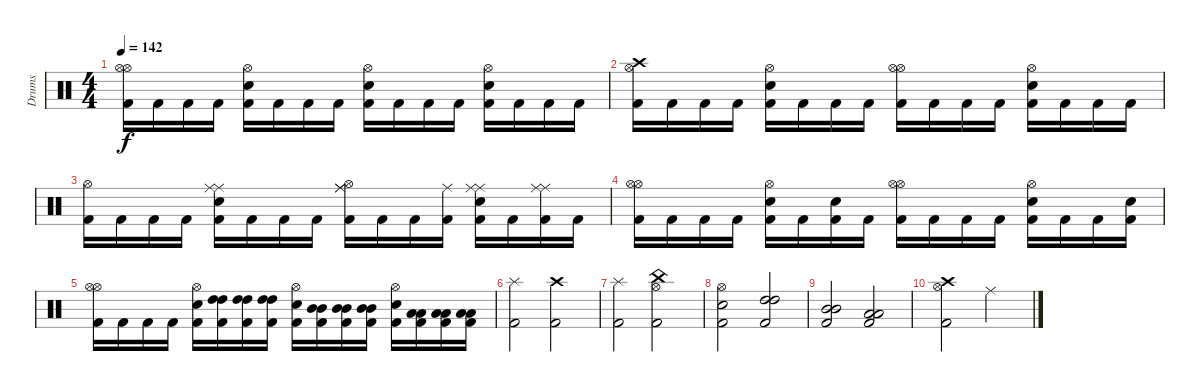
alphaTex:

\track ("Drums" "Drums") {instrument percussion}
\staff {score}
\articulation defaults
\ts (4 4)
\tempo 142
\clef neutral
\ks c
("Hi-Hat (open)" "Hi-Hat (open)" "Kick (hit) 2").16{dy f} "Kick (hit) 2".16 "Kick (hit) 2".16 "Kick (hit) 2".16 ("Hi-Hat (open)" "Electric Snare (hit)" "Kick (hit) 2").16 "Kick (hit) 2".16 "Kick (hit) 2".16 "Kick (hit) 2".16 ("Hi-Hat (open)" "Electric Snare (hit)" "Kick (hit) 2").16 "Kick (hit) 2".16 "Kick (hit) 2".16 "Kick (hit) 2".16 ("Hi-Hat (open)" "Electric Snare (hit)" "Kick (hit) 2").16 "Kick (hit) 2".16 "Kick (hit) 2".16 "Kick (hit) 2".16 |
("Crash high (hit)" "Hi-Hat (open)" "Kick (hit) 2").16 "Kick (hit) 2".16 "Kick (hit) 2".16 "Kick (hit) 2".16 ("Hi-Hat (open)" "Electric Snare (hit)" "Kick (hit) 2").16 "Kick (hit) 2".16 "Kick (hit) 2".16 "Kick (hit) 2".16 ("Hi-Hat (open)" "Hi-Hat (open)" "Kick (hit) 2").16 "Kick (hit) 2".16 "Kick (hit) 2".16 "Kick (hit) 2".16 ("Hi-Hat (open)" "Electric Snare (hit)" "Kick (hit) 2").16 "Kick (hit) 2".16 "Kick (hit) 2".16 "Kick (hit) 2".16 |
("Hi-Hat (open)" "Kick (hit) 2").16 "Kick (hit) 2".16 "Kick (hit) 2".16 "Kick (hit) 2".16 ("Ride (middle)" "Ride (middle)" "Electric Snare (hit)" "Kick (hit) 2").16 "Kick (hit) 2".16 "Kick (hit) 2".16 "Kick (hit) 2".16 ("Ride (middle)" "Ride (middle)" "Hi-Hat (open)" "Kick (hit) 2").16 "Kick (hit) 2".16 "Kick (hit) 2".16 ("Ride (middle)" "Kick (hit) 2").16 ("Ride (middle)" "Ride (middle)" "Electric Snare (hit)" "Kick (hit) 2").16 "Kick (hit) 2".16 ("Ride (middle)" "Ride (middle)" "Kick (hit) 2").16 "Kick (hit) 2".16 |
("Hi-Hat (open)" "Hi-Hat (open)" "Kick (hit) 2").16 "Kick (hit) 2".16 "Kick (hit) 2".16 "Kick (hit) 2".16 ("Hi-Hat (open)" "Electric Snare (hit)" "Kick (hit) 2").16 "Kick (hit) 2".16 ("Electric Snare (hit)" "Kick (hit) 2").16 "Kick (hit) 2".16 ("Hi-Hat (open)" "Hi-Hat (open)" "Kick (hit) 2").16 "Kick (hit) 2".16 "Kick (hit) 2".16 "Kick (hit) 2".16 ("Hi-Hat (open)" "Electric Snare (hit)" "Kick (hit) 2").16 "Kick (hit) 2".16 "Kick (hit) 2".16 ("Electric Snare (hit)" "Kick (hit) 2").16 |
("Hi-Hat (open)" "Hi-Hat (open)" "Kick (hit) 2").16 "Kick (hit) 2".16 "Kick (hit) 2".16 "Kick (hit) 2".16 ("Hi-Hat (open)" "Electric Snare (hit)" "Kick (hit) 2").16 ("High Tom (hit)" "High Tom (hit)" "Kick (hit) 2").16 ("High Tom (hit)" "High Tom (hit)" "Kick (hit) 2").16 ("High Tom (hit)" "High Tom (hit)" "Kick (hit) 2").16 ("Hi-Hat (open)" "Electric Snare (hit)" "Kick (hit) 2").16 ("Mid Tom (hit)" "Mid Tom (hit)" "Kick (hit) 2").16 ("Mid Tom (hit)" "Mid Tom (hit)" "Kick (hit) 2").16 ("Mid Tom (hit)" "Mid Tom (hit)" "Kick (hit) 2").16 ("Hi-Hat (open)" "Electric Snare (hit)" "Kick (hit) 2").16 ("Low Tom (hit)" "Low Tom (hit)" "Kick (hit) 2").16 ("Low Tom (hit)" "Low Tom (hit)" "Kick (hit) 2").16 ("Low Tom (hit)" "Low Tom (hit)" "Kick (hit) 2").16 |
("Splash (hit)" "Kick (hit) 2").2 ("Crash high (hit)" "Kick (hit) 2").2 |
("Splash (hit)" "Kick (hit) 2").2 ("China (hit)" "Hi-Hat (open)" "Kick (hit) 2").2 |
("Hi-Hat (open)" "Electric Snare (hit)" "Kick (hit) 2").2 ("High Tom (hit)" "High Tom (hit)" "Kick (hit) 2").2 |
("Mid Tom (hit)" "Mid Tom (hit)" "Kick (hit) 2").2 ("Low Tom (hit)" "Low Tom (hit)" "Kick (hit) 2").2 |
("Crash high (hit)" "Hi-Hat (open)" "Kick (hit) 2").2 "Ride (middle)".2
